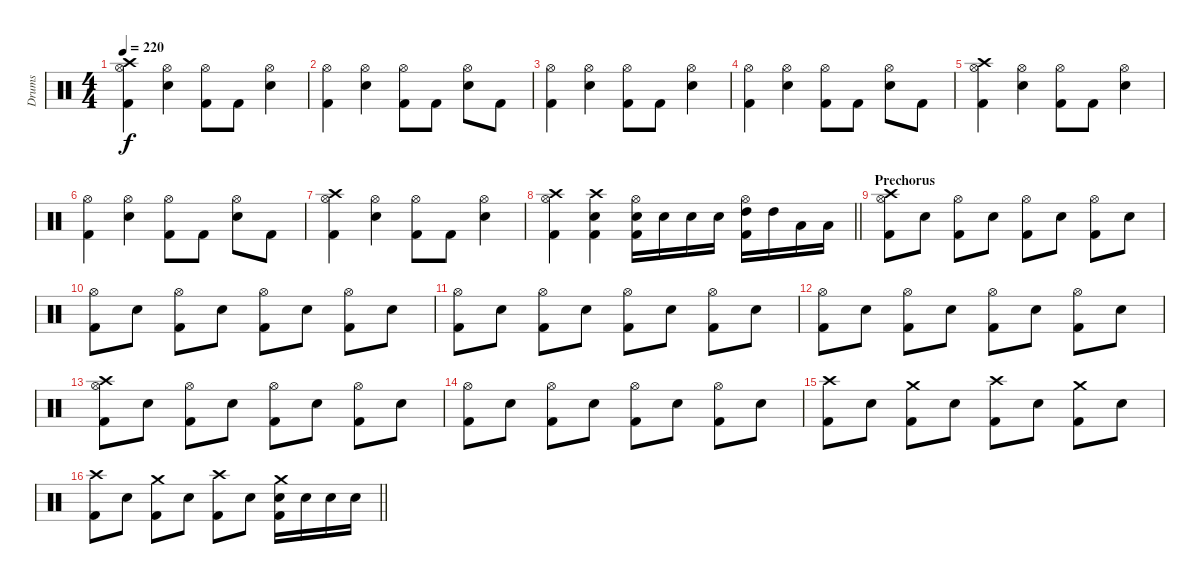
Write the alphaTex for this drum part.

\track ("Drums" "Drums") {instrument percussion}
\staff {score}
\articulation defaults
\ts (4 4)
\tempo 220
\clef neutral
\ks c
("Crash high (hit)" "Hi-Hat (open)" "Kick (hit) 2").4{dy f} ("Hi-Hat (open)" "Snare (hit) 2").4 ("Hi-Hat (open)" "Kick (hit) 2").8 "Kick (hit) 2".8 ("Hi-Hat (open)" "Snare (hit) 2").4 |
("Hi-Hat (open)" "Kick (hit) 2").4 ("Hi-Hat (open)" "Snare (hit) 2").4 ("Hi-Hat (open)" "Kick (hit) 2").8 "Kick (hit) 2".8 ("Hi-Hat (open)" "Snare (hit) 2").8 "Kick (hit) 2".8 |
("Hi-Hat (open)" "Kick (hit) 2").4 ("Hi-Hat (open)" "Snare (hit) 2").4 ("Hi-Hat (open)" "Kick (hit) 2").8 "Kick (hit) 2".8 ("Hi-Hat (open)" "Snare (hit) 2").4 |
("Hi-Hat (open)" "Kick (hit) 2").4 ("Hi-Hat (open)" "Snare (hit) 2").4 ("Hi-Hat (open)" "Kick (hit) 2").8 "Kick (hit) 2".8 ("Hi-Hat (open)" "Snare (hit) 2").8 "Kick (hit) 2".8 |
("Crash high (hit)" "Hi-Hat (open)" "Kick (hit) 2").4 ("Hi-Hat (open)" "Snare (hit) 2").4 ("Hi-Hat (open)" "Kick (hit) 2").8 "Kick (hit) 2".8 ("Hi-Hat (open)" "Snare (hit) 2").4 |
("Hi-Hat (open)" "Kick (hit) 2").4 ("Hi-Hat (open)" "Snare (hit) 2").4 ("Hi-Hat (open)" "Kick (hit) 2").8 "Kick (hit) 2".8 ("Hi-Hat (open)" "Snare (hit) 2").8 "Kick (hit) 2".8 |
("Crash high (hit)" "Hi-Hat (open)" "Kick (hit) 2").4 ("Hi-Hat (open)" "Snare (hit) 2").4 ("Hi-Hat (open)" "Kick (hit) 2").8 "Kick (hit) 2".8 ("Hi-Hat (open)" "Snare (hit) 2").4 |
\barLineRight lightlight
("Crash high (hit)" "Hi-Hat (open)" "Kick (hit) 2").4 ("Crash high (hit)" "Snare (hit) 2" "Kick (hit) 2").4 ("Hi-Hat (open)" "Snare (hit) 2" "Kick (hit) 2").16 "Snare (hit) 2".16 "Snare (hit) 2".16 "Snare (hit) 2".16 ("Hi-Hat (open)" "High Tom (hit)" "Kick (hit) 2").16 "High Tom (hit)".16 "Low Tom (hit)".16 "Low Tom (hit)".16 |
\section ("" "Prechorus")
("Crash high (hit)" "Hi-Hat (open)" "Kick (hit) 2").8 "Snare (hit) 2".8 ("Hi-Hat (open)" "Kick (hit) 2").8 "Snare (hit) 2".8 ("Hi-Hat (open)" "Kick (hit) 2").8 "Snare (hit) 2".8 ("Hi-Hat (open)" "Kick (hit) 2").8 "Snare (hit) 2".8 |
("Hi-Hat (open)" "Kick (hit) 2").8 "Snare (hit) 2".8 ("Hi-Hat (open)" "Kick (hit) 2").8 "Snare (hit) 2".8 ("Hi-Hat (open)" "Kick (hit) 2").8 "Snare (hit) 2".8 ("Hi-Hat (open)" "Kick (hit) 2").8 "Snare (hit) 2".8 |
("Hi-Hat (open)" "Kick (hit) 2").8 "Snare (hit) 2".8 ("Hi-Hat (open)" "Kick (hit) 2").8 "Snare (hit) 2".8 ("Hi-Hat (open)" "Kick (hit) 2").8 "Snare (hit) 2".8 ("Hi-Hat (open)" "Kick (hit) 2").8 "Snare (hit) 2".8 |
("Hi-Hat (open)" "Kick (hit) 2").8 "Snare (hit) 2".8 ("Hi-Hat (open)" "Kick (hit) 2").8 "Snare (hit) 2".8 ("Hi-Hat (open)" "Kick (hit) 2").8 "Snare (hit) 2".8 ("Hi-Hat (open)" "Kick (hit) 2").8 "Snare (hit) 2".8 |
("Crash high (hit)" "Hi-Hat (open)" "Kick (hit) 2").8 "Snare (hit) 2".8 ("Hi-Hat (open)" "Kick (hit) 2").8 "Snare (hit) 2".8 ("Hi-Hat (open)" "Kick (hit) 2").8 "Snare (hit) 2".8 ("Hi-Hat (open)" "Kick (hit) 2").8 "Snare (hit) 2".8 |
("Hi-Hat (open)" "Kick (hit) 2").8 "Snare (hit) 2".8 ("Hi-Hat (open)" "Kick (hit) 2").8 "Snare (hit) 2".8 ("Hi-Hat (open)" "Kick (hit) 2").8 "Snare (hit) 2".8 ("Hi-Hat (open)" "Kick (hit) 2").8 "Snare (hit) 2".8 |
("Crash high (hit)" "Kick (hit) 2").8 "Snare (hit) 2".8 ("Crash medium (hit)" "Kick (hit) 2").8 "Snare (hit) 2".8 ("Crash high (hit)" "Kick (hit) 2").8 "Snare (hit) 2".8 ("Crash medium (hit)" "Kick (hit) 2").8 "Snare (hit) 2".8 |
\barLineRight lightlight
("Crash high (hit)" "Kick (hit) 2").8 "Snare (hit) 2".8 ("Crash medium (hit)" "Kick (hit) 2").8 "Snare (hit) 2".8 ("Crash high (hit)" "Kick (hit) 2").8 "Snare (hit) 2".8 ("Crash medium (hit)" "Snare (hit) 2" "Kick (hit) 2").16 "Snare (hit) 2".16 "Snare (hit) 2".16 "Snare (hit) 2".16
